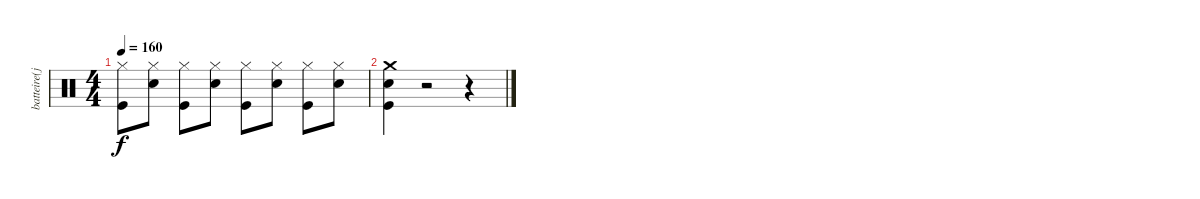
\track ("batteire(jesus bonehead)" "batteire(j") {instrument percussion}
\staff {score}
\articulation defaults
\ts (4 4)
\tempo 160
\clef neutral
\ks c
("Hi-Hat (closed)" "Kick (hit)").8{dy f} ("Hi-Hat (closed)" "Snare (hit) 2").8 ("Hi-Hat (closed)" "Kick (hit)").8 ("Hi-Hat (closed)" "Snare (hit) 2").8 ("Hi-Hat (closed)" "Kick (hit)").8 ("Hi-Hat (closed)" "Snare (hit) 2").8 ("Hi-Hat (closed)" "Kick (hit)").8 ("Hi-Hat (closed)" "Snare (hit) 2").8 |
("Crash medium (hit)" "Snare (hit) 2" "Kick (hit)").4 r.2 r.4
